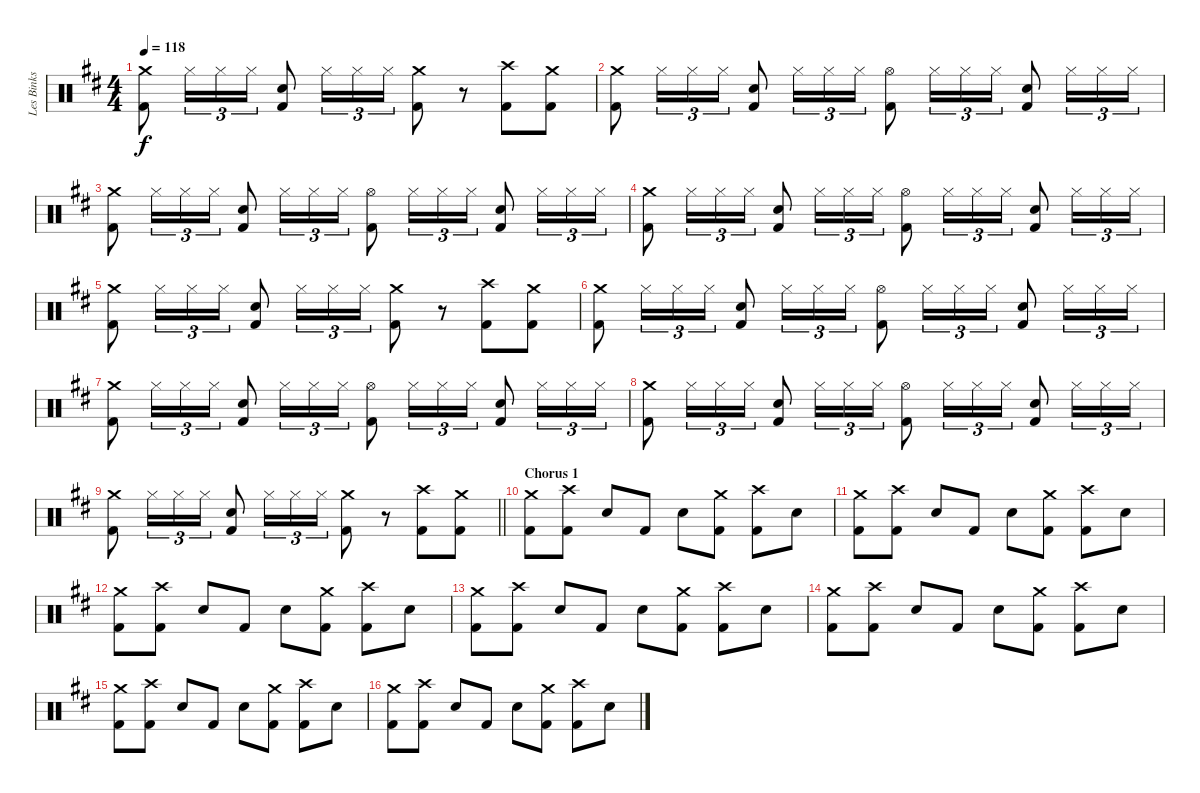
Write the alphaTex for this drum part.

\track ("Les Binks" "Les Binks") {instrument percussion}
\staff {score}
\articulation defaults
\ts (4 4)
\tempo 118
\clef neutral
\ks d
("Crash medium (hit)" "Kick (hit) 2").8{dy f} "Hi-Hat (closed)".16{tu (3 2)} "Hi-Hat (closed)".16{tu (3 2)} "Hi-Hat (closed)".16{tu (3 2)} ("Snare (hit) 2" "Kick (hit) 2").8 "Hi-Hat (closed)".16{tu (3 2)} "Hi-Hat (closed)".16{tu (3 2)} "Hi-Hat (closed)".16{tu (3 2)} ("Crash medium (hit)" "Kick (hit) 2").8 r.8 ("Crash high (hit)" "Kick (hit) 2").8 ("Crash medium (hit)" "Kick (hit) 2").8 |
("Crash medium (hit)" "Kick (hit) 2").8 "Hi-Hat (closed)".16{tu (3 2)} "Hi-Hat (closed)".16{tu (3 2)} "Hi-Hat (closed)".16{tu (3 2)} ("Snare (hit) 2" "Kick (hit) 2").8 "Hi-Hat (closed)".16{tu (3 2)} "Hi-Hat (closed)".16{tu (3 2)} "Hi-Hat (closed)".16{tu (3 2)} ("Hi-Hat (open)" "Kick (hit) 2").8 "Hi-Hat (closed)".16{tu (3 2)} "Hi-Hat (closed)".16{tu (3 2)} "Hi-Hat (closed)".16{tu (3 2)} ("Snare (hit) 2" "Kick (hit) 2").8 "Hi-Hat (closed)".16{tu (3 2)} "Hi-Hat (closed)".16{tu (3 2)} "Hi-Hat (closed)".16{tu (3 2)} |
("Crash medium (hit)" "Kick (hit) 2").8 "Hi-Hat (closed)".16{tu (3 2)} "Hi-Hat (closed)".16{tu (3 2)} "Hi-Hat (closed)".16{tu (3 2)} ("Snare (hit) 2" "Kick (hit) 2").8 "Hi-Hat (closed)".16{tu (3 2)} "Hi-Hat (closed)".16{tu (3 2)} "Hi-Hat (closed)".16{tu (3 2)} ("Hi-Hat (open)" "Kick (hit) 2").8 "Hi-Hat (closed)".16{tu (3 2)} "Hi-Hat (closed)".16{tu (3 2)} "Hi-Hat (closed)".16{tu (3 2)} ("Snare (hit) 2" "Kick (hit) 2").8 "Hi-Hat (closed)".16{tu (3 2)} "Hi-Hat (closed)".16{tu (3 2)} "Hi-Hat (closed)".16{tu (3 2)} |
("Crash medium (hit)" "Kick (hit) 2").8 "Hi-Hat (closed)".16{tu (3 2)} "Hi-Hat (closed)".16{tu (3 2)} "Hi-Hat (closed)".16{tu (3 2)} ("Snare (hit) 2" "Kick (hit) 2").8 "Hi-Hat (closed)".16{tu (3 2)} "Hi-Hat (closed)".16{tu (3 2)} "Hi-Hat (closed)".16{tu (3 2)} ("Hi-Hat (open)" "Kick (hit) 2").8 "Hi-Hat (closed)".16{tu (3 2)} "Hi-Hat (closed)".16{tu (3 2)} "Hi-Hat (closed)".16{tu (3 2)} ("Snare (hit) 2" "Kick (hit) 2").8 "Hi-Hat (closed)".16{tu (3 2)} "Hi-Hat (closed)".16{tu (3 2)} "Hi-Hat (closed)".16{tu (3 2)} |
("Crash medium (hit)" "Kick (hit) 2").8 "Hi-Hat (closed)".16{tu (3 2)} "Hi-Hat (closed)".16{tu (3 2)} "Hi-Hat (closed)".16{tu (3 2)} ("Snare (hit) 2" "Kick (hit) 2").8 "Hi-Hat (closed)".16{tu (3 2)} "Hi-Hat (closed)".16{tu (3 2)} "Hi-Hat (closed)".16{tu (3 2)} ("Crash medium (hit)" "Kick (hit) 2").8 r.8 ("Crash high (hit)" "Kick (hit) 2").8 ("Crash medium (hit)" "Kick (hit) 2").8 |
("Crash medium (hit)" "Kick (hit) 2").8 "Hi-Hat (closed)".16{tu (3 2)} "Hi-Hat (closed)".16{tu (3 2)} "Hi-Hat (closed)".16{tu (3 2)} ("Snare (hit) 2" "Kick (hit) 2").8 "Hi-Hat (closed)".16{tu (3 2)} "Hi-Hat (closed)".16{tu (3 2)} "Hi-Hat (closed)".16{tu (3 2)} ("Hi-Hat (open)" "Kick (hit) 2").8 "Hi-Hat (closed)".16{tu (3 2)} "Hi-Hat (closed)".16{tu (3 2)} "Hi-Hat (closed)".16{tu (3 2)} ("Snare (hit) 2" "Kick (hit) 2").8 "Hi-Hat (closed)".16{tu (3 2)} "Hi-Hat (closed)".16{tu (3 2)} "Hi-Hat (closed)".16{tu (3 2)} |
("Crash medium (hit)" "Kick (hit) 2").8 "Hi-Hat (closed)".16{tu (3 2)} "Hi-Hat (closed)".16{tu (3 2)} "Hi-Hat (closed)".16{tu (3 2)} ("Snare (hit) 2" "Kick (hit) 2").8 "Hi-Hat (closed)".16{tu (3 2)} "Hi-Hat (closed)".16{tu (3 2)} "Hi-Hat (closed)".16{tu (3 2)} ("Hi-Hat (open)" "Kick (hit) 2").8 "Hi-Hat (closed)".16{tu (3 2)} "Hi-Hat (closed)".16{tu (3 2)} "Hi-Hat (closed)".16{tu (3 2)} ("Snare (hit) 2" "Kick (hit) 2").8 "Hi-Hat (closed)".16{tu (3 2)} "Hi-Hat (closed)".16{tu (3 2)} "Hi-Hat (closed)".16{tu (3 2)} |
("Crash medium (hit)" "Kick (hit) 2").8 "Hi-Hat (closed)".16{tu (3 2)} "Hi-Hat (closed)".16{tu (3 2)} "Hi-Hat (closed)".16{tu (3 2)} ("Snare (hit) 2" "Kick (hit) 2").8 "Hi-Hat (closed)".16{tu (3 2)} "Hi-Hat (closed)".16{tu (3 2)} "Hi-Hat (closed)".16{tu (3 2)} ("Hi-Hat (open)" "Kick (hit) 2").8 "Hi-Hat (closed)".16{tu (3 2)} "Hi-Hat (closed)".16{tu (3 2)} "Hi-Hat (closed)".16{tu (3 2)} ("Snare (hit) 2" "Kick (hit) 2").8 "Hi-Hat (closed)".16{tu (3 2)} "Hi-Hat (closed)".16{tu (3 2)} "Hi-Hat (closed)".16{tu (3 2)} |
\barLineRight lightlight
("Crash medium (hit)" "Kick (hit) 2").8 "Hi-Hat (closed)".16{tu (3 2)} "Hi-Hat (closed)".16{tu (3 2)} "Hi-Hat (closed)".16{tu (3 2)} ("Snare (hit) 2" "Kick (hit) 2").8 "Hi-Hat (closed)".16{tu (3 2)} "Hi-Hat (closed)".16{tu (3 2)} "Hi-Hat (closed)".16{tu (3 2)} ("Crash medium (hit)" "Kick (hit) 2").8 r.8 ("Crash high (hit)" "Kick (hit) 2").8 ("Crash medium (hit)" "Kick (hit) 2").8 |
\section ("" "Chorus 1")
("Crash medium (hit)" "Kick (hit) 2").8 ("Crash high (hit)" "Kick (hit) 2").8 "Snare (hit) 2".8 "Kick (hit) 2".8 "Snare (hit) 2".8 ("Crash medium (hit)" "Kick (hit) 2").8 ("Crash high (hit)" "Kick (hit) 2").8 "Snare (hit) 2".8 |
("Crash medium (hit)" "Kick (hit) 2").8 ("Crash high (hit)" "Kick (hit) 2").8 "Snare (hit) 2".8 "Kick (hit) 2".8 "Snare (hit) 2".8 ("Crash medium (hit)" "Kick (hit) 2").8 ("Crash high (hit)" "Kick (hit) 2").8 "Snare (hit) 2".8 |
("Crash medium (hit)" "Kick (hit) 2").8 ("Crash high (hit)" "Kick (hit) 2").8 "Snare (hit) 2".8 "Kick (hit) 2".8 "Snare (hit) 2".8 ("Crash medium (hit)" "Kick (hit) 2").8 ("Crash high (hit)" "Kick (hit) 2").8 "Snare (hit) 2".8 |
("Crash medium (hit)" "Kick (hit) 2").8 ("Crash high (hit)" "Kick (hit) 2").8 "Snare (hit) 2".8 "Kick (hit) 2".8 "Snare (hit) 2".8 ("Crash medium (hit)" "Kick (hit) 2").8 ("Crash high (hit)" "Kick (hit) 2").8 "Snare (hit) 2".8 |
("Crash medium (hit)" "Kick (hit) 2").8 ("Crash high (hit)" "Kick (hit) 2").8 "Snare (hit) 2".8 "Kick (hit) 2".8 "Snare (hit) 2".8 ("Crash medium (hit)" "Kick (hit) 2").8 ("Crash high (hit)" "Kick (hit) 2").8 "Snare (hit) 2".8 |
("Crash medium (hit)" "Kick (hit) 2").8 ("Crash high (hit)" "Kick (hit) 2").8 "Snare (hit) 2".8 "Kick (hit) 2".8 "Snare (hit) 2".8 ("Crash medium (hit)" "Kick (hit) 2").8 ("Crash high (hit)" "Kick (hit) 2").8 "Snare (hit) 2".8 |
("Crash medium (hit)" "Kick (hit) 2").8 ("Crash high (hit)" "Kick (hit) 2").8 "Snare (hit) 2".8 "Kick (hit) 2".8 "Snare (hit) 2".8 ("Crash medium (hit)" "Kick (hit) 2").8 ("Crash high (hit)" "Kick (hit) 2").8 "Snare (hit) 2".8
